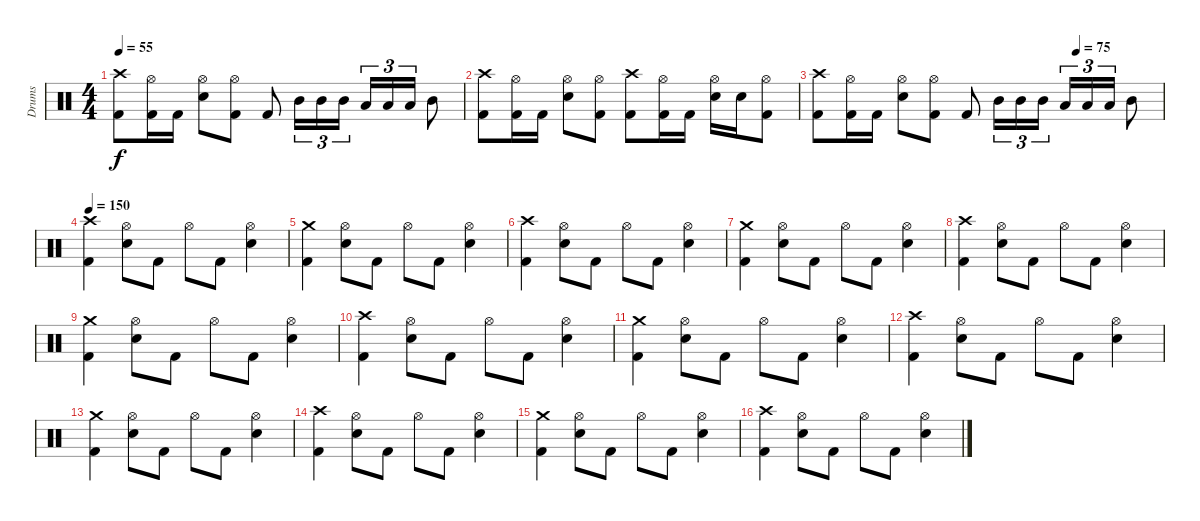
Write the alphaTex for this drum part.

\track ("Drums" "Drums") {instrument percussion}
\staff {score}
\articulation defaults
\ts (4 4)
\tempo 55
\clef neutral
\ks c
("Crash high (hit)" "Kick (hit) 2").8{dy f} ("Hi-Hat (open)" "Kick (hit) 2").16 "Kick (hit) 2".16 ("Hi-Hat (open)" "Electric Snare (hit)").8 ("Hi-Hat (open)" "Kick (hit) 2").8 "Kick (hit) 2".8 "Mid Tom (hit)".16{tu (3 2)} "Mid Tom (hit)".16{tu (3 2)} "Mid Tom (hit)".16{tu (3 2)} "Low Tom (hit)".16{tu (3 2)} "Low Tom (hit)".16{tu (3 2)} "Low Tom (hit)".16{tu (3 2)} "Mid Tom (hit)".8 |
("Crash high (hit)" "Kick (hit) 2").8 ("Hi-Hat (open)" "Kick (hit) 2").16 "Kick (hit) 2".16 ("Hi-Hat (open)" "Electric Snare (hit)").8 ("Hi-Hat (open)" "Kick (hit) 2").8 ("Crash high (hit)" "Kick (hit) 2").8 ("Hi-Hat (open)" "Kick (hit) 2").16 "Kick (hit) 2".16 ("Hi-Hat (open)" "Electric Snare (hit)").16 "Electric Snare (hit)".16 ("Hi-Hat (open)" "Kick (hit) 2").8 |
\tempo (75 0.75)
("Crash high (hit)" "Kick (hit) 2").8 ("Hi-Hat (open)" "Kick (hit) 2").16 "Kick (hit) 2".16 ("Hi-Hat (open)" "Electric Snare (hit)").8 ("Hi-Hat (open)" "Kick (hit) 2").8 "Kick (hit) 2".8 "Mid Tom (hit)".16{tu (3 2)} "Mid Tom (hit)".16{tu (3 2)} "Mid Tom (hit)".16{tu (3 2)} "Low Tom (hit)".16{tu (3 2)} "Low Tom (hit)".16{tu (3 2)} "Low Tom (hit)".16{tu (3 2)} "Mid Tom (hit)".8 |
\tempo 150
("Crash high (hit)" "Kick (hit) 2").4 ("Hi-Hat (open)" "Electric Snare (hit)").8 "Kick (hit) 2".8 "Hi-Hat (open)".8 "Kick (hit) 2".8 ("Hi-Hat (open)" "Electric Snare (hit)").4 |
("Crash medium (hit)" "Kick (hit) 2").4 ("Hi-Hat (open)" "Electric Snare (hit)").8 "Kick (hit) 2".8 "Hi-Hat (open)".8 "Kick (hit) 2".8 ("Hi-Hat (open)" "Electric Snare (hit)").4 |
("Crash high (hit)" "Kick (hit) 2").4 ("Hi-Hat (open)" "Electric Snare (hit)").8 "Kick (hit) 2".8 "Hi-Hat (open)".8 "Kick (hit) 2".8 ("Hi-Hat (open)" "Electric Snare (hit)").4 |
("Crash medium (hit)" "Kick (hit) 2").4 ("Hi-Hat (open)" "Electric Snare (hit)").8 "Kick (hit) 2".8 "Hi-Hat (open)".8 "Kick (hit) 2".8 ("Hi-Hat (open)" "Electric Snare (hit)").4 |
("Crash high (hit)" "Kick (hit) 2").4 ("Hi-Hat (open)" "Electric Snare (hit)").8 "Kick (hit) 2".8 "Hi-Hat (open)".8 "Kick (hit) 2".8 ("Hi-Hat (open)" "Electric Snare (hit)").4 |
("Crash medium (hit)" "Kick (hit) 2").4 ("Hi-Hat (open)" "Electric Snare (hit)").8 "Kick (hit) 2".8 "Hi-Hat (open)".8 "Kick (hit) 2".8 ("Hi-Hat (open)" "Electric Snare (hit)").4 |
("Crash high (hit)" "Kick (hit) 2").4 ("Hi-Hat (open)" "Electric Snare (hit)").8 "Kick (hit) 2".8 "Hi-Hat (open)".8 "Kick (hit) 2".8 ("Hi-Hat (open)" "Electric Snare (hit)").4 |
("Crash medium (hit)" "Kick (hit) 2").4 ("Hi-Hat (open)" "Electric Snare (hit)").8 "Kick (hit) 2".8 "Hi-Hat (open)".8 "Kick (hit) 2".8 ("Hi-Hat (open)" "Electric Snare (hit)").4 |
("Crash high (hit)" "Kick (hit) 2").4 ("Hi-Hat (open)" "Electric Snare (hit)").8 "Kick (hit) 2".8 "Hi-Hat (open)".8 "Kick (hit) 2".8 ("Hi-Hat (open)" "Electric Snare (hit)").4 |
("Crash medium (hit)" "Kick (hit) 2").4 ("Hi-Hat (open)" "Electric Snare (hit)").8 "Kick (hit) 2".8 "Hi-Hat (open)".8 "Kick (hit) 2".8 ("Hi-Hat (open)" "Electric Snare (hit)").4 |
("Crash high (hit)" "Kick (hit) 2").4 ("Hi-Hat (open)" "Electric Snare (hit)").8 "Kick (hit) 2".8 "Hi-Hat (open)".8 "Kick (hit) 2".8 ("Hi-Hat (open)" "Electric Snare (hit)").4 |
("Crash medium (hit)" "Kick (hit) 2").4 ("Hi-Hat (open)" "Electric Snare (hit)").8 "Kick (hit) 2".8 "Hi-Hat (open)".8 "Kick (hit) 2".8 ("Hi-Hat (open)" "Electric Snare (hit)").4 |
("Crash high (hit)" "Kick (hit) 2").4 ("Hi-Hat (open)" "Electric Snare (hit)").8 "Kick (hit) 2".8 "Hi-Hat (open)".8 "Kick (hit) 2".8 ("Hi-Hat (open)" "Electric Snare (hit)").4
